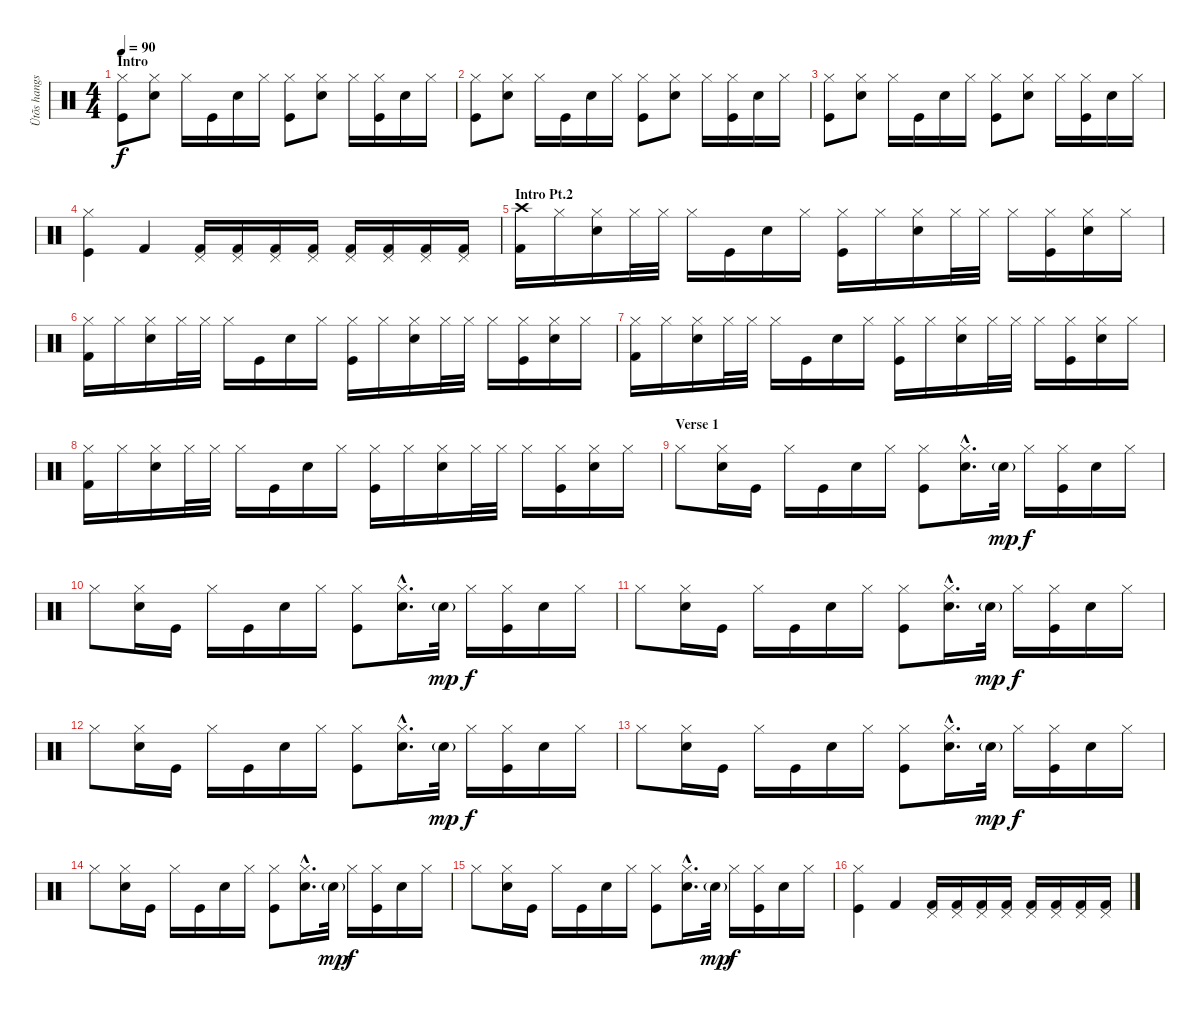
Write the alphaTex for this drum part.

\track ("Ütõs hangszer" "Ütõs hangs") {instrument percussion}
\staff {score}
\articulation defaults
\ts (4 4)
\section ("" "Intro")
\tempo 90
\clef neutral
\ks c
("Hi-Hat (closed)" "Kick (hit)").8{dy f} ("Hi-Hat (closed)" "Electric Snare (hit)").8 "Hi-Hat (closed)".16 "Kick (hit)".16 "Electric Snare (hit)".16 "Hi-Hat (closed)".16 ("Hi-Hat (closed)" "Kick (hit)").8 ("Hi-Hat (closed)" "Electric Snare (hit)").8 "Hi-Hat (closed)".16 ("Hi-Hat (closed)" "Kick (hit)").16 "Electric Snare (hit)".16 "Hi-Hat (closed)".16 |
("Hi-Hat (closed)" "Kick (hit)").8 ("Hi-Hat (closed)" "Electric Snare (hit)").8 "Hi-Hat (closed)".16 "Kick (hit)".16 "Electric Snare (hit)".16 "Hi-Hat (closed)".16 ("Hi-Hat (closed)" "Kick (hit)").8 ("Hi-Hat (closed)" "Electric Snare (hit)").8 "Hi-Hat (closed)".16 ("Hi-Hat (closed)" "Kick (hit)").16 "Electric Snare (hit)".16 "Hi-Hat (closed)".16 |
("Hi-Hat (closed)" "Kick (hit)").8 ("Hi-Hat (closed)" "Electric Snare (hit)").8 "Hi-Hat (closed)".16 "Kick (hit)".16 "Electric Snare (hit)".16 "Hi-Hat (closed)".16 ("Hi-Hat (closed)" "Kick (hit)").8 ("Hi-Hat (closed)" "Electric Snare (hit)").8 "Hi-Hat (closed)".16 ("Hi-Hat (closed)" "Kick (hit)").16 "Electric Snare (hit)".16 "Hi-Hat (closed)".16 |
("Hi-Hat (closed)" "Kick (hit)").4 "Kick (hit) 2".4 ("Pedal Hi-Hat (hit)" "Kick (hit) 2").16 ("Pedal Hi-Hat (hit)" "Kick (hit) 2").16 ("Pedal Hi-Hat (hit)" "Kick (hit) 2").16 ("Pedal Hi-Hat (hit)" "Kick (hit) 2").16 ("Pedal Hi-Hat (hit)" "Kick (hit) 2").16 ("Pedal Hi-Hat (hit)" "Kick (hit) 2").16 ("Pedal Hi-Hat (hit)" "Kick (hit) 2").16 ("Pedal Hi-Hat (hit)" "Kick (hit) 2").16 |
\section ("" "Intro Pt.2")
("Crash high (hit)" "Kick (hit) 2").16 "Hi-Hat (closed)".16 ("Hi-Hat (closed)" "Electric Snare (hit)").16 "Hi-Hat (closed)".32 "Hi-Hat (closed)".32 "Hi-Hat (closed)".16 "Kick (hit)".16 "Electric Snare (hit)".16 "Hi-Hat (closed)".16 ("Hi-Hat (closed)" "Kick (hit)").16 "Hi-Hat (closed)".16 ("Hi-Hat (closed)" "Electric Snare (hit)").16 "Hi-Hat (closed)".32 "Hi-Hat (closed)".32 "Hi-Hat (closed)".16 ("Hi-Hat (closed)" "Kick (hit)").16 ("Hi-Hat (closed)" "Electric Snare (hit)").16 "Hi-Hat (closed)".16 |
("Hi-Hat (closed)" "Kick (hit) 2").16 "Hi-Hat (closed)".16 ("Hi-Hat (closed)" "Electric Snare (hit)").16 "Hi-Hat (closed)".32 "Hi-Hat (closed)".32 "Hi-Hat (closed)".16 "Kick (hit)".16 "Electric Snare (hit)".16 "Hi-Hat (closed)".16 ("Hi-Hat (closed)" "Kick (hit)").16 "Hi-Hat (closed)".16 ("Hi-Hat (closed)" "Electric Snare (hit)").16 "Hi-Hat (closed)".32 "Hi-Hat (closed)".32 "Hi-Hat (closed)".16 ("Hi-Hat (closed)" "Kick (hit)").16 ("Hi-Hat (closed)" "Electric Snare (hit)").16 "Hi-Hat (closed)".16 |
("Hi-Hat (closed)" "Kick (hit) 2").16 "Hi-Hat (closed)".16 ("Hi-Hat (closed)" "Electric Snare (hit)").16 "Hi-Hat (closed)".32 "Hi-Hat (closed)".32 "Hi-Hat (closed)".16 "Kick (hit)".16 "Electric Snare (hit)".16 "Hi-Hat (closed)".16 ("Hi-Hat (closed)" "Kick (hit)").16 "Hi-Hat (closed)".16 ("Hi-Hat (closed)" "Electric Snare (hit)").16 "Hi-Hat (closed)".32 "Hi-Hat (closed)".32 "Hi-Hat (closed)".16 ("Hi-Hat (closed)" "Kick (hit)").16 ("Hi-Hat (closed)" "Electric Snare (hit)").16 "Hi-Hat (closed)".16 |
("Hi-Hat (closed)" "Kick (hit) 2").16 "Hi-Hat (closed)".16 ("Hi-Hat (closed)" "Electric Snare (hit)").16 "Hi-Hat (closed)".32 "Hi-Hat (closed)".32 "Hi-Hat (closed)".16 "Kick (hit)".16 "Electric Snare (hit)".16 "Hi-Hat (closed)".16 ("Hi-Hat (closed)" "Kick (hit)").16 "Hi-Hat (closed)".16 ("Hi-Hat (closed)" "Electric Snare (hit)").16 "Hi-Hat (closed)".32 "Hi-Hat (closed)".32 "Hi-Hat (closed)".16 ("Hi-Hat (closed)" "Kick (hit)").16 ("Hi-Hat (closed)" "Electric Snare (hit)").16 "Hi-Hat (closed)".16 |
\section ("" "Verse 1")
"Hi-Hat (closed)".8 ("Hi-Hat (closed)" "Electric Snare (hit)").16 "Kick (hit)".16 "Hi-Hat (closed)".16 "Kick (hit)".16 "Electric Snare (hit)".16 "Hi-Hat (closed)".16 ("Hi-Hat (closed)" "Kick (hit)").8 ("Hi-Hat (closed)"{hac} "Electric Snare (hit)"{hac}).16{d} "Electric Snare (hit)"{g}.32{dy mp} "Hi-Hat (closed)".16{dy f} ("Hi-Hat (closed)" "Kick (hit)").16 "Electric Snare (hit)".16 "Hi-Hat (closed)".16 |
"Hi-Hat (closed)".8 ("Hi-Hat (closed)" "Electric Snare (hit)").16 "Kick (hit)".16 "Hi-Hat (closed)".16 "Kick (hit)".16 "Electric Snare (hit)".16 "Hi-Hat (closed)".16 ("Hi-Hat (closed)" "Kick (hit)").8 ("Hi-Hat (closed)"{hac} "Electric Snare (hit)"{hac}).16{d} "Electric Snare (hit)"{g}.32{dy mp} "Hi-Hat (closed)".16{dy f} ("Hi-Hat (closed)" "Kick (hit)").16 "Electric Snare (hit)".16 "Hi-Hat (closed)".16 |
"Hi-Hat (closed)".8 ("Hi-Hat (closed)" "Electric Snare (hit)").16 "Kick (hit)".16 "Hi-Hat (closed)".16 "Kick (hit)".16 "Electric Snare (hit)".16 "Hi-Hat (closed)".16 ("Hi-Hat (closed)" "Kick (hit)").8 ("Hi-Hat (closed)"{hac} "Electric Snare (hit)"{hac}).16{d} "Electric Snare (hit)"{g}.32{dy mp} "Hi-Hat (closed)".16{dy f} ("Hi-Hat (closed)" "Kick (hit)").16 "Electric Snare (hit)".16 "Hi-Hat (closed)".16 |
"Hi-Hat (closed)".8 ("Hi-Hat (closed)" "Electric Snare (hit)").16 "Kick (hit)".16 "Hi-Hat (closed)".16 "Kick (hit)".16 "Electric Snare (hit)".16 "Hi-Hat (closed)".16 ("Hi-Hat (closed)" "Kick (hit)").8 ("Hi-Hat (closed)"{hac} "Electric Snare (hit)"{hac}).16{d} "Electric Snare (hit)"{g}.32{dy mp} "Hi-Hat (closed)".16{dy f} ("Hi-Hat (closed)" "Kick (hit)").16 "Electric Snare (hit)".16 "Hi-Hat (closed)".16 |
"Hi-Hat (closed)".8 ("Hi-Hat (closed)" "Electric Snare (hit)").16 "Kick (hit)".16 "Hi-Hat (closed)".16 "Kick (hit)".16 "Electric Snare (hit)".16 "Hi-Hat (closed)".16 ("Hi-Hat (closed)" "Kick (hit)").8 ("Hi-Hat (closed)"{hac} "Electric Snare (hit)"{hac}).16{d} "Electric Snare (hit)"{g}.32{dy mp} "Hi-Hat (closed)".16{dy f} ("Hi-Hat (closed)" "Kick (hit)").16 "Electric Snare (hit)".16 "Hi-Hat (closed)".16 |
"Hi-Hat (closed)".8 ("Hi-Hat (closed)" "Electric Snare (hit)").16 "Kick (hit)".16 "Hi-Hat (closed)".16 "Kick (hit)".16 "Electric Snare (hit)".16 "Hi-Hat (closed)".16 ("Hi-Hat (closed)" "Kick (hit)").8 ("Hi-Hat (closed)"{hac} "Electric Snare (hit)"{hac}).16{d} "Electric Snare (hit)"{g}.32{dy mp} "Hi-Hat (closed)".16{dy f} ("Hi-Hat (closed)" "Kick (hit)").16 "Electric Snare (hit)".16 "Hi-Hat (closed)".16 |
"Hi-Hat (closed)".8 ("Hi-Hat (closed)" "Electric Snare (hit)").16 "Kick (hit)".16 "Hi-Hat (closed)".16 "Kick (hit)".16 "Electric Snare (hit)".16 "Hi-Hat (closed)".16 ("Hi-Hat (closed)" "Kick (hit)").8 ("Hi-Hat (closed)"{hac} "Electric Snare (hit)"{hac}).16{d} "Electric Snare (hit)"{g}.32{dy mp} "Hi-Hat (closed)".16{dy f} ("Hi-Hat (closed)" "Kick (hit)").16 "Electric Snare (hit)".16 "Hi-Hat (closed)".16 |
("Hi-Hat (closed)" "Kick (hit)").4 "Kick (hit) 2".4 ("Pedal Hi-Hat (hit)" "Kick (hit) 2").16 ("Pedal Hi-Hat (hit)" "Kick (hit) 2").16 ("Pedal Hi-Hat (hit)" "Kick (hit) 2").16 ("Pedal Hi-Hat (hit)" "Kick (hit) 2").16 ("Pedal Hi-Hat (hit)" "Kick (hit) 2").16 ("Pedal Hi-Hat (hit)" "Kick (hit) 2").16 ("Pedal Hi-Hat (hit)" "Kick (hit) 2").16 ("Pedal Hi-Hat (hit)" "Kick (hit) 2").16
